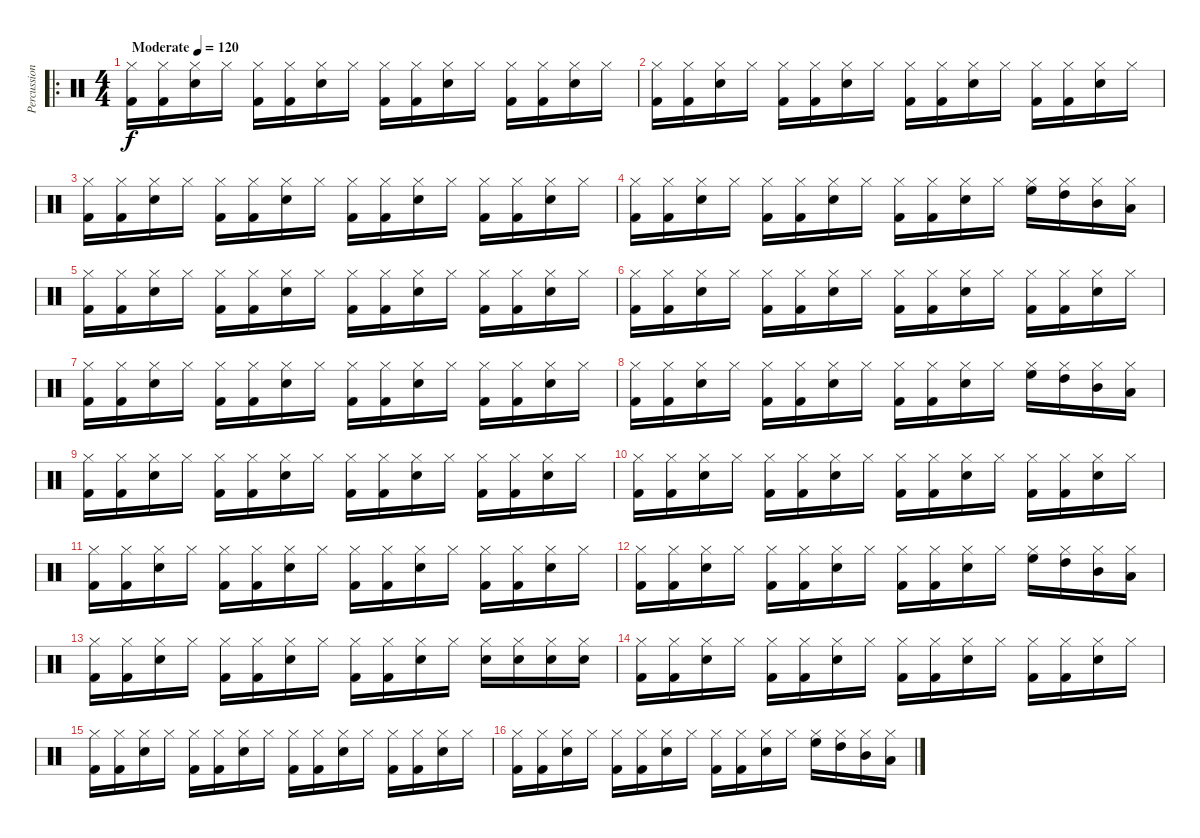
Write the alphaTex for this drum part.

\track ("Percussion" "Percussion") {instrument percussion}
\staff {score}
\articulation defaults
\ro
\ts (4 4)
\tempo (120 "Moderate")
\clef neutral
\ks c
("Hi-Hat (closed)" "Kick (hit) 2").16{dy f} ("Hi-Hat (closed)" "Kick (hit) 2").16 ("Hi-Hat (closed)" "Snare (hit) 2").16 "Hi-Hat (closed)".16 ("Hi-Hat (closed)" "Kick (hit) 2").16 ("Hi-Hat (closed)" "Kick (hit) 2").16 ("Hi-Hat (closed)" "Snare (hit) 2").16 "Hi-Hat (closed)".16 ("Hi-Hat (closed)" "Kick (hit) 2").16 ("Hi-Hat (closed)" "Kick (hit) 2").16 ("Hi-Hat (closed)" "Snare (hit) 2").16 "Hi-Hat (closed)".16 ("Hi-Hat (closed)" "Kick (hit) 2").16 ("Hi-Hat (closed)" "Kick (hit) 2").16 ("Hi-Hat (closed)" "Snare (hit) 2").16 "Hi-Hat (closed)".16 |
("Hi-Hat (closed)" "Kick (hit) 2").16 ("Hi-Hat (closed)" "Kick (hit) 2").16 ("Hi-Hat (closed)" "Snare (hit) 2").16 "Hi-Hat (closed)".16 ("Hi-Hat (closed)" "Kick (hit) 2").16 ("Hi-Hat (closed)" "Kick (hit) 2").16 ("Hi-Hat (closed)" "Snare (hit) 2").16 "Hi-Hat (closed)".16 ("Hi-Hat (closed)" "Kick (hit) 2").16 ("Hi-Hat (closed)" "Kick (hit) 2").16 ("Hi-Hat (closed)" "Snare (hit) 2").16 "Hi-Hat (closed)".16 ("Hi-Hat (closed)" "Kick (hit) 2").16 ("Hi-Hat (closed)" "Kick (hit) 2").16 ("Hi-Hat (closed)" "Snare (hit) 2").16 "Hi-Hat (closed)".16 |
("Hi-Hat (closed)" "Kick (hit) 2").16 ("Hi-Hat (closed)" "Kick (hit) 2").16 ("Hi-Hat (closed)" "Snare (hit) 2").16 "Hi-Hat (closed)".16 ("Hi-Hat (closed)" "Kick (hit) 2").16 ("Hi-Hat (closed)" "Kick (hit) 2").16 ("Hi-Hat (closed)" "Snare (hit) 2").16 "Hi-Hat (closed)".16 ("Hi-Hat (closed)" "Kick (hit) 2").16 ("Hi-Hat (closed)" "Kick (hit) 2").16 ("Hi-Hat (closed)" "Snare (hit) 2").16 "Hi-Hat (closed)".16 ("Hi-Hat (closed)" "Kick (hit) 2").16 ("Hi-Hat (closed)" "Kick (hit) 2").16 ("Hi-Hat (closed)" "Snare (hit) 2").16 "Hi-Hat (closed)".16 |
("Hi-Hat (closed)" "Kick (hit) 2").16 ("Hi-Hat (closed)" "Kick (hit) 2").16 ("Hi-Hat (closed)" "Snare (hit) 2").16 "Hi-Hat (closed)".16 ("Hi-Hat (closed)" "Kick (hit) 2").16 ("Hi-Hat (closed)" "Kick (hit) 2").16 ("Hi-Hat (closed)" "Snare (hit) 2").16 "Hi-Hat (closed)".16 ("Hi-Hat (closed)" "Kick (hit) 2").16 ("Hi-Hat (closed)" "Kick (hit) 2").16 ("Hi-Hat (closed)" "Snare (hit) 2").16 "Hi-Hat (closed)".16 ("Hi-Hat (closed)" "High Floor Tom (hit)").16 ("Hi-Hat (closed)" "High Tom (hit)").16 ("Hi-Hat (closed)" "Mid Tom (hit)").16 ("Hi-Hat (closed)" "Low Tom (hit)").16 |
("Hi-Hat (closed)" "Kick (hit) 2").16 ("Hi-Hat (closed)" "Kick (hit) 2").16 ("Hi-Hat (closed)" "Snare (hit) 2").16 "Hi-Hat (closed)".16 ("Hi-Hat (closed)" "Kick (hit) 2").16 ("Hi-Hat (closed)" "Kick (hit) 2").16 ("Hi-Hat (closed)" "Snare (hit) 2").16 "Hi-Hat (closed)".16 ("Hi-Hat (closed)" "Kick (hit) 2").16 ("Hi-Hat (closed)" "Kick (hit) 2").16 ("Hi-Hat (closed)" "Snare (hit) 2").16 "Hi-Hat (closed)".16 ("Hi-Hat (closed)" "Kick (hit) 2").16 ("Hi-Hat (closed)" "Kick (hit) 2").16 ("Hi-Hat (closed)" "Snare (hit) 2").16 "Hi-Hat (closed)".16 |
("Hi-Hat (closed)" "Kick (hit) 2").16 ("Hi-Hat (closed)" "Kick (hit) 2").16 ("Hi-Hat (closed)" "Snare (hit) 2").16 "Hi-Hat (closed)".16 ("Hi-Hat (closed)" "Kick (hit) 2").16 ("Hi-Hat (closed)" "Kick (hit) 2").16 ("Hi-Hat (closed)" "Snare (hit) 2").16 "Hi-Hat (closed)".16 ("Hi-Hat (closed)" "Kick (hit) 2").16 ("Hi-Hat (closed)" "Kick (hit) 2").16 ("Hi-Hat (closed)" "Snare (hit) 2").16 "Hi-Hat (closed)".16 ("Hi-Hat (closed)" "Kick (hit) 2").16 ("Hi-Hat (closed)" "Kick (hit) 2").16 ("Hi-Hat (closed)" "Snare (hit) 2").16 "Hi-Hat (closed)".16 |
("Hi-Hat (closed)" "Kick (hit) 2").16 ("Hi-Hat (closed)" "Kick (hit) 2").16 ("Hi-Hat (closed)" "Snare (hit) 2").16 "Hi-Hat (closed)".16 ("Hi-Hat (closed)" "Kick (hit) 2").16 ("Hi-Hat (closed)" "Kick (hit) 2").16 ("Hi-Hat (closed)" "Snare (hit) 2").16 "Hi-Hat (closed)".16 ("Hi-Hat (closed)" "Kick (hit) 2").16 ("Hi-Hat (closed)" "Kick (hit) 2").16 ("Hi-Hat (closed)" "Snare (hit) 2").16 "Hi-Hat (closed)".16 ("Hi-Hat (closed)" "Kick (hit) 2").16 ("Hi-Hat (closed)" "Kick (hit) 2").16 ("Hi-Hat (closed)" "Snare (hit) 2").16 "Hi-Hat (closed)".16 |
("Hi-Hat (closed)" "Kick (hit) 2").16 ("Hi-Hat (closed)" "Kick (hit) 2").16 ("Hi-Hat (closed)" "Snare (hit) 2").16 "Hi-Hat (closed)".16 ("Hi-Hat (closed)" "Kick (hit) 2").16 ("Hi-Hat (closed)" "Kick (hit) 2").16 ("Hi-Hat (closed)" "Snare (hit) 2").16 "Hi-Hat (closed)".16 ("Hi-Hat (closed)" "Kick (hit) 2").16 ("Hi-Hat (closed)" "Kick (hit) 2").16 ("Hi-Hat (closed)" "Snare (hit) 2").16 "Hi-Hat (closed)".16 ("Hi-Hat (closed)" "High Floor Tom (hit)").16 ("Hi-Hat (closed)" "High Tom (hit)").16 ("Hi-Hat (closed)" "Mid Tom (hit)").16 ("Hi-Hat (closed)" "Low Tom (hit)").16 |
("Hi-Hat (closed)" "Kick (hit) 2").16 ("Hi-Hat (closed)" "Kick (hit) 2").16 ("Hi-Hat (closed)" "Snare (hit) 2").16 "Hi-Hat (closed)".16 ("Hi-Hat (closed)" "Kick (hit) 2").16 ("Hi-Hat (closed)" "Kick (hit) 2").16 ("Hi-Hat (closed)" "Snare (hit) 2").16 "Hi-Hat (closed)".16 ("Hi-Hat (closed)" "Kick (hit) 2").16 ("Hi-Hat (closed)" "Kick (hit) 2").16 ("Hi-Hat (closed)" "Snare (hit) 2").16 "Hi-Hat (closed)".16 ("Hi-Hat (closed)" "Kick (hit) 2").16 ("Hi-Hat (closed)" "Kick (hit) 2").16 ("Hi-Hat (closed)" "Snare (hit) 2").16 "Hi-Hat (closed)".16 |
("Hi-Hat (closed)" "Kick (hit) 2").16 ("Hi-Hat (closed)" "Kick (hit) 2").16 ("Hi-Hat (closed)" "Snare (hit) 2").16 "Hi-Hat (closed)".16 ("Hi-Hat (closed)" "Kick (hit) 2").16 ("Hi-Hat (closed)" "Kick (hit) 2").16 ("Hi-Hat (closed)" "Snare (hit) 2").16 "Hi-Hat (closed)".16 ("Hi-Hat (closed)" "Kick (hit) 2").16 ("Hi-Hat (closed)" "Kick (hit) 2").16 ("Hi-Hat (closed)" "Snare (hit) 2").16 "Hi-Hat (closed)".16 ("Hi-Hat (closed)" "Kick (hit) 2").16 ("Hi-Hat (closed)" "Kick (hit) 2").16 ("Hi-Hat (closed)" "Snare (hit) 2").16 "Hi-Hat (closed)".16 |
("Hi-Hat (closed)" "Kick (hit) 2").16 ("Hi-Hat (closed)" "Kick (hit) 2").16 ("Hi-Hat (closed)" "Snare (hit) 2").16 "Hi-Hat (closed)".16 ("Hi-Hat (closed)" "Kick (hit) 2").16 ("Hi-Hat (closed)" "Kick (hit) 2").16 ("Hi-Hat (closed)" "Snare (hit) 2").16 "Hi-Hat (closed)".16 ("Hi-Hat (closed)" "Kick (hit) 2").16 ("Hi-Hat (closed)" "Kick (hit) 2").16 ("Hi-Hat (closed)" "Snare (hit) 2").16 "Hi-Hat (closed)".16 ("Hi-Hat (closed)" "Kick (hit) 2").16 ("Hi-Hat (closed)" "Kick (hit) 2").16 ("Hi-Hat (closed)" "Snare (hit) 2").16 "Hi-Hat (closed)".16 |
("Hi-Hat (closed)" "Kick (hit) 2").16 ("Hi-Hat (closed)" "Kick (hit) 2").16 ("Hi-Hat (closed)" "Snare (hit) 2").16 "Hi-Hat (closed)".16 ("Hi-Hat (closed)" "Kick (hit) 2").16 ("Hi-Hat (closed)" "Kick (hit) 2").16 ("Hi-Hat (closed)" "Snare (hit) 2").16 "Hi-Hat (closed)".16 ("Hi-Hat (closed)" "Kick (hit) 2").16 ("Hi-Hat (closed)" "Kick (hit) 2").16 ("Hi-Hat (closed)" "Snare (hit) 2").16 "Hi-Hat (closed)".16 ("Hi-Hat (closed)" "High Floor Tom (hit)").16 ("Hi-Hat (closed)" "High Tom (hit)").16 ("Hi-Hat (closed)" "Mid Tom (hit)").16 ("Hi-Hat (closed)" "Low Tom (hit)").16 |
("Hi-Hat (closed)" "Kick (hit) 2").16 ("Hi-Hat (closed)" "Kick (hit) 2").16 ("Hi-Hat (closed)" "Snare (hit) 2").16 "Hi-Hat (closed)".16 ("Hi-Hat (closed)" "Kick (hit) 2").16 ("Hi-Hat (closed)" "Kick (hit) 2").16 ("Hi-Hat (closed)" "Snare (hit) 2").16 "Hi-Hat (closed)".16 ("Hi-Hat (closed)" "Kick (hit) 2").16 ("Hi-Hat (closed)" "Kick (hit) 2").16 ("Hi-Hat (closed)" "Snare (hit) 2").16 "Hi-Hat (closed)".16 ("Hi-Hat (closed)" "Snare (hit) 2").16 ("Hi-Hat (closed)" "Snare (hit) 2").16 ("Hi-Hat (closed)" "Snare (hit) 2").16 ("Hi-Hat (closed)" "Snare (hit) 2").16 |
("Hi-Hat (closed)" "Kick (hit) 2").16 ("Hi-Hat (closed)" "Kick (hit) 2").16 ("Hi-Hat (closed)" "Snare (hit) 2").16 "Hi-Hat (closed)".16 ("Hi-Hat (closed)" "Kick (hit) 2").16 ("Hi-Hat (closed)" "Kick (hit) 2").16 ("Hi-Hat (closed)" "Snare (hit) 2").16 "Hi-Hat (closed)".16 ("Hi-Hat (closed)" "Kick (hit) 2").16 ("Hi-Hat (closed)" "Kick (hit) 2").16 ("Hi-Hat (closed)" "Snare (hit) 2").16 "Hi-Hat (closed)".16 ("Hi-Hat (closed)" "Kick (hit) 2").16 ("Hi-Hat (closed)" "Kick (hit) 2").16 ("Hi-Hat (closed)" "Snare (hit) 2").16 "Hi-Hat (closed)".16 |
("Hi-Hat (closed)" "Kick (hit) 2").16 ("Hi-Hat (closed)" "Kick (hit) 2").16 ("Hi-Hat (closed)" "Snare (hit) 2").16 "Hi-Hat (closed)".16 ("Hi-Hat (closed)" "Kick (hit) 2").16 ("Hi-Hat (closed)" "Kick (hit) 2").16 ("Hi-Hat (closed)" "Snare (hit) 2").16 "Hi-Hat (closed)".16 ("Hi-Hat (closed)" "Kick (hit) 2").16 ("Hi-Hat (closed)" "Kick (hit) 2").16 ("Hi-Hat (closed)" "Snare (hit) 2").16 "Hi-Hat (closed)".16 ("Hi-Hat (closed)" "Kick (hit) 2").16 ("Hi-Hat (closed)" "Kick (hit) 2").16 ("Hi-Hat (closed)" "Snare (hit) 2").16 "Hi-Hat (closed)".16 |
("Hi-Hat (closed)" "Kick (hit) 2").16 ("Hi-Hat (closed)" "Kick (hit) 2").16 ("Hi-Hat (closed)" "Snare (hit) 2").16 "Hi-Hat (closed)".16 ("Hi-Hat (closed)" "Kick (hit) 2").16 ("Hi-Hat (closed)" "Kick (hit) 2").16 ("Hi-Hat (closed)" "Snare (hit) 2").16 "Hi-Hat (closed)".16 ("Hi-Hat (closed)" "Kick (hit) 2").16 ("Hi-Hat (closed)" "Kick (hit) 2").16 ("Hi-Hat (closed)" "Snare (hit) 2").16 "Hi-Hat (closed)".16 ("Hi-Hat (closed)" "High Floor Tom (hit)").16 ("Hi-Hat (closed)" "High Tom (hit)").16 ("Hi-Hat (closed)" "Mid Tom (hit)").16 ("Hi-Hat (closed)" "Low Tom (hit)").16
